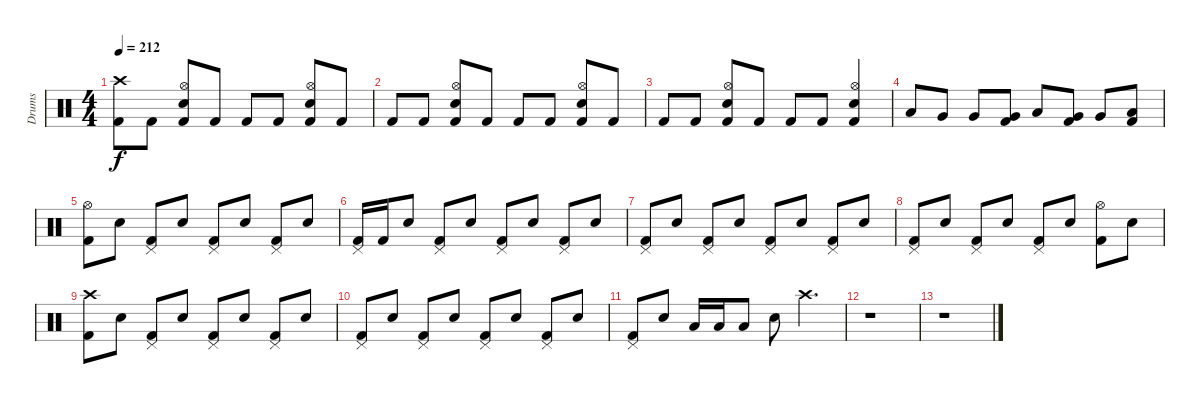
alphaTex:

\track ("Drums" "Drums") {instrument percussion}
\staff {score}
\articulation defaults
\ts (4 4)
\tempo 212
\clef neutral
\ks c
("Crash high (hit)" "Kick (hit) 2").8{dy f} "Kick (hit) 2".8 ("Hi-Hat (open)" "Snare (hit) 2" "Kick (hit) 2").8 "Kick (hit) 2".8 "Kick (hit) 2".8 "Kick (hit) 2".8 ("Hi-Hat (open)" "Snare (hit) 2" "Kick (hit) 2").8 "Kick (hit) 2".8 |
"Kick (hit) 2".8 "Kick (hit) 2".8 ("Hi-Hat (open)" "Snare (hit) 2" "Kick (hit) 2").8 "Kick (hit) 2".8 "Kick (hit) 2".8 "Kick (hit) 2".8 ("Hi-Hat (open)" "Snare (hit) 2" "Kick (hit) 2").8 "Kick (hit) 2".8 |
"Kick (hit) 2".8 "Kick (hit) 2".8 ("Hi-Hat (open)" "Snare (hit) 2" "Kick (hit) 2").8 "Kick (hit) 2".8 "Kick (hit) 2".8 "Kick (hit) 2".8 ("Hi-Hat (open)" "Snare (hit) 2" "Kick (hit) 2").4 |
"Low Tom (hit)".8 "Very Low Tom (hit)".8 "Very Low Tom (hit)".8 ("Very Low Tom (hit)" "Kick (hit) 2").8 "Low Tom (hit)".8 ("Very Low Tom (hit)" "Kick (hit) 2").8 "Very Low Tom (hit)".8 ("Low Floor Tom (hit)" "Kick (hit) 2").8 |
("Hi-Hat (open)" "Kick (hit) 2").8 "Snare (hit) 2".8 ("Pedal Hi-Hat (hit)" "Kick (hit) 2").8 "Snare (hit) 2".8 ("Pedal Hi-Hat (hit)" "Kick (hit) 2").8 "Snare (hit) 2".8 ("Pedal Hi-Hat (hit)" "Kick (hit) 2").8 "Snare (hit) 2".8 |
("Pedal Hi-Hat (hit)" "Kick (hit) 2").16 "Kick (hit) 2".16 "Snare (hit) 2".8 ("Pedal Hi-Hat (hit)" "Kick (hit) 2").8 "Snare (hit) 2".8 ("Pedal Hi-Hat (hit)" "Kick (hit) 2").8 "Snare (hit) 2".8 ("Pedal Hi-Hat (hit)" "Kick (hit) 2").8 "Snare (hit) 2".8 |
("Pedal Hi-Hat (hit)" "Kick (hit) 2").8 "Snare (hit) 2".8 ("Pedal Hi-Hat (hit)" "Kick (hit) 2").8 "Snare (hit) 2".8 ("Pedal Hi-Hat (hit)" "Kick (hit) 2").8 "Snare (hit) 2".8 ("Pedal Hi-Hat (hit)" "Kick (hit) 2").8 "Snare (hit) 2".8 |
("Pedal Hi-Hat (hit)" "Kick (hit) 2").8 "Snare (hit) 2".8 ("Pedal Hi-Hat (hit)" "Kick (hit) 2").8 "Snare (hit) 2".8 ("Pedal Hi-Hat (hit)" "Kick (hit) 2").8 "Snare (hit) 2".8 ("Hi-Hat (open)" "Kick (hit) 2").8 "Snare (hit) 2".8 |
("Crash high (hit)" "Kick (hit) 2").8 "Snare (hit) 2".8 ("Pedal Hi-Hat (hit)" "Kick (hit) 2").8 "Snare (hit) 2".8 ("Pedal Hi-Hat (hit)" "Kick (hit) 2").8 "Snare (hit) 2".8 ("Pedal Hi-Hat (hit)" "Kick (hit) 2").8 "Snare (hit) 2".8 |
("Pedal Hi-Hat (hit)" "Kick (hit) 2").8 "Snare (hit) 2".8 ("Pedal Hi-Hat (hit)" "Kick (hit) 2").8 "Snare (hit) 2".8 ("Pedal Hi-Hat (hit)" "Kick (hit) 2").8 "Snare (hit) 2".8 ("Pedal Hi-Hat (hit)" "Kick (hit) 2").8 "Snare (hit) 2".8 |
("Pedal Hi-Hat (hit)" "Kick (hit) 2").8 "Snare (hit) 2".8 "Low Floor Tom (hit)".16 "Low Floor Tom (hit)".16 "Low Floor Tom (hit)".8 "Snare (hit) 2".8 "Crash high (hit)".4{d} |
r.1 |
r.1
